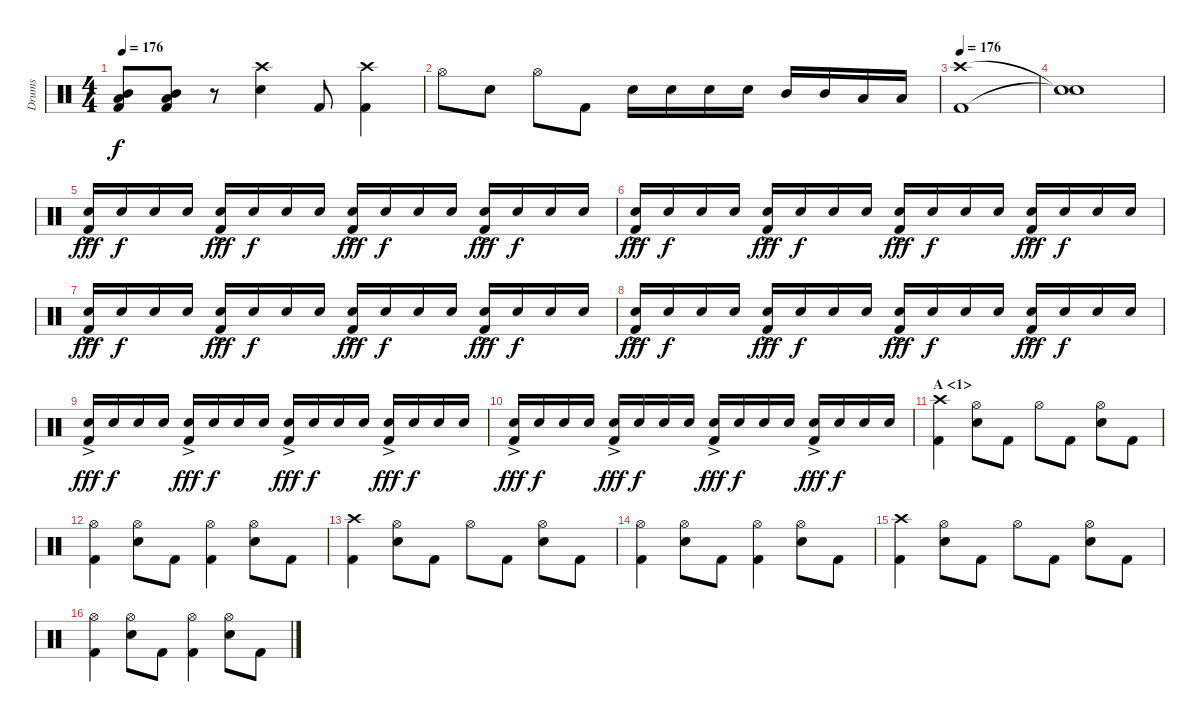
\track ("Drums" "Drums") {instrument percussion}
\staff {score}
\articulation defaults
\ts (4 4)
\tempo 176
\clef neutral
\ks c
("Mid Tom (hit)" "Low Tom (hit)" "Kick (hit) 2").8{dy f} ("Mid Tom (hit)" "Low Tom (hit)" "Kick (hit) 2").8 r.8 ("Crash high (hit)" "Electric Snare (hit)").4 "Kick (hit) 2".8 ("Crash high (hit)" "Kick (hit) 2").4 |
"Hi-Hat (open)".8 "Electric Snare (hit)".8 "Hi-Hat (open)".8 "Kick (hit) 2".8 "Electric Snare (hit)".16 "Electric Snare (hit)".16 "Electric Snare (hit)".16 "Electric Snare (hit)".16 "Mid Tom (hit)".16 "Mid Tom (hit)".16 "Low Tom (hit)".16 "Low Tom (hit)".16 |
\section ("" "")
\tempo 176
("Crash high (hit)" "Kick (hit) 2").1 |
("Snare (hit)"{t} "Snare (hit)"{t}).1 |
("Electric Snare (hit)"{ac} "Kick (hit) 2").16{dy fff} "Electric Snare (hit)".16{dy f} "Electric Snare (hit)".16 "Electric Snare (hit)".16 ("Electric Snare (hit)"{ac} "Kick (hit) 2").16{dy fff} "Electric Snare (hit)".16{dy f} "Electric Snare (hit)".16 "Electric Snare (hit)".16 ("Electric Snare (hit)"{ac} "Kick (hit) 2").16{dy fff} "Electric Snare (hit)".16{dy f} "Electric Snare (hit)".16 "Electric Snare (hit)".16 ("Electric Snare (hit)"{ac} "Kick (hit) 2").16{dy fff} "Electric Snare (hit)".16{dy f} "Electric Snare (hit)".16 "Electric Snare (hit)".16 |
("Electric Snare (hit)"{ac} "Kick (hit) 2").16{dy fff} "Electric Snare (hit)".16{dy f} "Electric Snare (hit)".16 "Electric Snare (hit)".16 ("Electric Snare (hit)"{ac} "Kick (hit) 2").16{dy fff} "Electric Snare (hit)".16{dy f} "Electric Snare (hit)".16 "Electric Snare (hit)".16 ("Electric Snare (hit)"{ac} "Kick (hit) 2").16{dy fff} "Electric Snare (hit)".16{dy f} "Electric Snare (hit)".16 "Electric Snare (hit)".16 ("Electric Snare (hit)"{ac} "Kick (hit) 2").16{dy fff} "Electric Snare (hit)".16{dy f} "Electric Snare (hit)".16 "Electric Snare (hit)".16 |
\section ("" "")
("Electric Snare (hit)"{ac} "Kick (hit) 2").16{dy fff} "Electric Snare (hit)".16{dy f} "Electric Snare (hit)".16 "Electric Snare (hit)".16 ("Electric Snare (hit)"{ac} "Kick (hit) 2").16{dy fff} "Electric Snare (hit)".16{dy f} "Electric Snare (hit)".16 "Electric Snare (hit)".16 ("Electric Snare (hit)"{ac} "Kick (hit) 2").16{dy fff} "Electric Snare (hit)".16{dy f} "Electric Snare (hit)".16 "Electric Snare (hit)".16 ("Electric Snare (hit)"{ac} "Kick (hit) 2").16{dy fff} "Electric Snare (hit)".16{dy f} "Electric Snare (hit)".16 "Electric Snare (hit)".16 |
("Electric Snare (hit)"{ac} "Kick (hit) 2").16{dy fff} "Electric Snare (hit)".16{dy f} "Electric Snare (hit)".16 "Electric Snare (hit)".16 ("Electric Snare (hit)"{ac} "Kick (hit) 2").16{dy fff} "Electric Snare (hit)".16{dy f} "Electric Snare (hit)".16 "Electric Snare (hit)".16 ("Electric Snare (hit)"{ac} "Kick (hit) 2").16{dy fff} "Electric Snare (hit)".16{dy f} "Electric Snare (hit)".16 "Electric Snare (hit)".16 ("Electric Snare (hit)"{ac} "Kick (hit) 2").16{dy fff} "Electric Snare (hit)".16{dy f} "Electric Snare (hit)".16 "Electric Snare (hit)".16 |
("Electric Snare (hit)"{ac} "Kick (hit) 2").16{dy fff} "Electric Snare (hit)".16{dy f} "Electric Snare (hit)".16 "Electric Snare (hit)".16 ("Electric Snare (hit)"{ac} "Kick (hit) 2").16{dy fff} "Electric Snare (hit)".16{dy f} "Electric Snare (hit)".16 "Electric Snare (hit)".16 ("Electric Snare (hit)"{ac} "Kick (hit) 2").16{dy fff} "Electric Snare (hit)".16{dy f} "Electric Snare (hit)".16 "Electric Snare (hit)".16 ("Electric Snare (hit)"{ac} "Kick (hit) 2").16{dy fff} "Electric Snare (hit)".16{dy f} "Electric Snare (hit)".16 "Electric Snare (hit)".16 |
("Electric Snare (hit)"{ac} "Kick (hit) 2").16{dy fff} "Electric Snare (hit)".16{dy f} "Electric Snare (hit)".16 "Electric Snare (hit)".16 ("Electric Snare (hit)"{ac} "Kick (hit) 2").16{dy fff} "Electric Snare (hit)".16{dy f} "Electric Snare (hit)".16 "Electric Snare (hit)".16 ("Electric Snare (hit)"{ac} "Kick (hit) 2").16{dy fff} "Electric Snare (hit)".16{dy f} "Electric Snare (hit)".16 "Electric Snare (hit)".16 ("Electric Snare (hit)"{ac} "Kick (hit) 2").16{dy fff} "Electric Snare (hit)".16{dy f} "Electric Snare (hit)".16 "Electric Snare (hit)".16 |
\section ("" "A <1>")
("Crash high (hit)" "Kick (hit) 2").4 ("Hi-Hat (open)" "Electric Snare (hit)").8 "Kick (hit) 2".8 "Hi-Hat (open)".8 "Kick (hit) 2".8 ("Hi-Hat (open)" "Electric Snare (hit)").8 "Kick (hit) 2".8 |
("Hi-Hat (open)" "Kick (hit) 2").4 ("Hi-Hat (open)" "Electric Snare (hit)").8 "Kick (hit) 2".8 ("Hi-Hat (open)" "Kick (hit) 2").4 ("Hi-Hat (open)" "Electric Snare (hit)").8 "Kick (hit) 2".8 |
("Crash high (hit)" "Kick (hit) 2").4 ("Hi-Hat (open)" "Electric Snare (hit)").8 "Kick (hit) 2".8 "Hi-Hat (open)".8 "Kick (hit) 2".8 ("Hi-Hat (open)" "Electric Snare (hit)").8 "Kick (hit) 2".8 |
("Hi-Hat (open)" "Kick (hit) 2").4 ("Hi-Hat (open)" "Electric Snare (hit)").8 "Kick (hit) 2".8 ("Hi-Hat (open)" "Kick (hit) 2").4 ("Hi-Hat (open)" "Electric Snare (hit)").8 "Kick (hit) 2".8 |
("Crash high (hit)" "Kick (hit) 2").4 ("Hi-Hat (open)" "Electric Snare (hit)").8 "Kick (hit) 2".8 "Hi-Hat (open)".8 "Kick (hit) 2".8 ("Hi-Hat (open)" "Electric Snare (hit)").8 "Kick (hit) 2".8 |
("Hi-Hat (open)" "Kick (hit) 2").4 ("Hi-Hat (open)" "Electric Snare (hit)").8 "Kick (hit) 2".8 ("Hi-Hat (open)" "Kick (hit) 2").4 ("Hi-Hat (open)" "Electric Snare (hit)").8 "Kick (hit) 2".8
